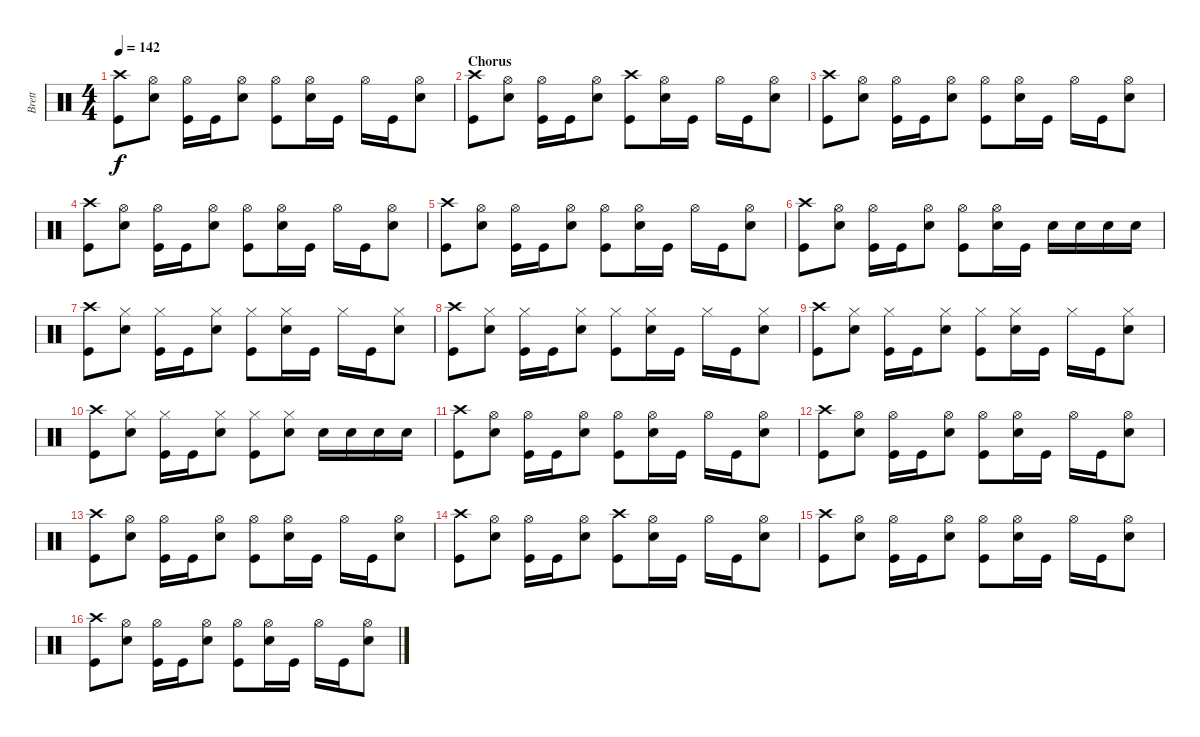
\track ("Brett" "Brett") {instrument percussion}
\staff {score}
\articulation defaults
\ts (4 4)
\tempo 142
\clef neutral
\ks c
("Crash high (hit)" "Kick (hit)").8{dy f} ("Hi-Hat (open)" "Electric Snare (hit)").8 ("Hi-Hat (open)" "Kick (hit)").16 "Kick (hit)".16 ("Hi-Hat (open)" "Electric Snare (hit)").8 ("Hi-Hat (open)" "Kick (hit)").8 ("Hi-Hat (open)" "Electric Snare (hit)").16 "Kick (hit)".16 "Hi-Hat (open)".16 "Kick (hit)".16 ("Hi-Hat (open)" "Electric Snare (hit)").8 |
\section ("" "Chorus")
("Crash high (hit)" "Kick (hit)").8 ("Hi-Hat (open)" "Electric Snare (hit)").8 ("Hi-Hat (open)" "Kick (hit)").16 "Kick (hit)".16 ("Hi-Hat (open)" "Electric Snare (hit)").8 ("Crash high (hit)" "Kick (hit)").8 ("Hi-Hat (open)" "Electric Snare (hit)").16 "Kick (hit)".16 "Hi-Hat (open)".16 "Kick (hit)".16 ("Hi-Hat (open)" "Electric Snare (hit)").8 |
("Crash high (hit)" "Kick (hit)").8 ("Hi-Hat (open)" "Electric Snare (hit)").8 ("Hi-Hat (open)" "Kick (hit)").16 "Kick (hit)".16 ("Hi-Hat (open)" "Electric Snare (hit)").8 ("Hi-Hat (open)" "Kick (hit)").8 ("Hi-Hat (open)" "Electric Snare (hit)").16 "Kick (hit)".16 "Hi-Hat (open)".16 "Kick (hit)".16 ("Hi-Hat (open)" "Electric Snare (hit)").8 |
("Crash high (hit)" "Kick (hit)").8 ("Hi-Hat (open)" "Electric Snare (hit)").8 ("Hi-Hat (open)" "Kick (hit)").16 "Kick (hit)".16 ("Hi-Hat (open)" "Electric Snare (hit)").8 ("Hi-Hat (open)" "Kick (hit)").8 ("Hi-Hat (open)" "Electric Snare (hit)").16 "Kick (hit)".16 "Hi-Hat (open)".16 "Kick (hit)".16 ("Hi-Hat (open)" "Electric Snare (hit)").8 |
("Crash high (hit)" "Kick (hit)").8 ("Hi-Hat (open)" "Electric Snare (hit)").8 ("Hi-Hat (open)" "Kick (hit)").16 "Kick (hit)".16 ("Hi-Hat (open)" "Electric Snare (hit)").8 ("Hi-Hat (open)" "Kick (hit)").8 ("Hi-Hat (open)" "Electric Snare (hit)").16 "Kick (hit)".16 "Hi-Hat (open)".16 "Kick (hit)".16 ("Hi-Hat (open)" "Electric Snare (hit)").8 |
("Crash high (hit)" "Kick (hit)").8 ("Hi-Hat (open)" "Electric Snare (hit)").8 ("Hi-Hat (open)" "Kick (hit)").16 "Kick (hit)".16 ("Hi-Hat (open)" "Electric Snare (hit)").8 ("Hi-Hat (open)" "Kick (hit)").8 ("Hi-Hat (open)" "Electric Snare (hit)").16 "Kick (hit)".16 "Electric Snare (hit)".16 "Electric Snare (hit)".16 "Electric Snare (hit)".16 "Electric Snare (hit)".16 |
("Crash high (hit)" "Kick (hit)").8 ("Hi-Hat (closed)" "Electric Snare (hit)").8 ("Hi-Hat (closed)" "Kick (hit)").16 "Kick (hit)".16 ("Hi-Hat (closed)" "Electric Snare (hit)").8 ("Hi-Hat (closed)" "Kick (hit)").8 ("Hi-Hat (closed)" "Electric Snare (hit)").16 "Kick (hit)".16 "Hi-Hat (closed)".16 "Kick (hit)".16 ("Hi-Hat (closed)" "Electric Snare (hit)").8 |
("Crash high (hit)" "Kick (hit)").8 ("Hi-Hat (closed)" "Electric Snare (hit)").8 ("Hi-Hat (closed)" "Kick (hit)").16 "Kick (hit)".16 ("Hi-Hat (closed)" "Electric Snare (hit)").8 ("Hi-Hat (closed)" "Kick (hit)").8 ("Hi-Hat (closed)" "Electric Snare (hit)").16 "Kick (hit)".16 "Hi-Hat (closed)".16 "Kick (hit)".16 ("Hi-Hat (closed)" "Electric Snare (hit)").8 |
("Crash high (hit)" "Kick (hit)").8 ("Hi-Hat (closed)" "Electric Snare (hit)").8 ("Hi-Hat (closed)" "Kick (hit)").16 "Kick (hit)".16 ("Hi-Hat (closed)" "Electric Snare (hit)").8 ("Hi-Hat (closed)" "Kick (hit)").8 ("Hi-Hat (closed)" "Electric Snare (hit)").16 "Kick (hit)".16 "Hi-Hat (closed)".16 "Kick (hit)".16 ("Hi-Hat (closed)" "Electric Snare (hit)").8 |
("Crash high (hit)" "Kick (hit)").8 ("Hi-Hat (closed)" "Electric Snare (hit)").8 ("Hi-Hat (closed)" "Kick (hit)").16 "Kick (hit)".16 ("Hi-Hat (closed)" "Electric Snare (hit)").8 ("Hi-Hat (closed)" "Kick (hit)").8 ("Hi-Hat (closed)" "Electric Snare (hit)").8 "Electric Snare (hit)".16 "Electric Snare (hit)".16 "Electric Snare (hit)".16 "Electric Snare (hit)".16 |
("Crash high (hit)" "Kick (hit)").8 ("Hi-Hat (open)" "Electric Snare (hit)").8 ("Hi-Hat (open)" "Kick (hit)").16 "Kick (hit)".16 ("Hi-Hat (open)" "Electric Snare (hit)").8 ("Hi-Hat (open)" "Kick (hit)").8 ("Hi-Hat (open)" "Electric Snare (hit)").16 "Kick (hit)".16 "Hi-Hat (open)".16 "Kick (hit)".16 ("Hi-Hat (open)" "Electric Snare (hit)").8 |
("Crash high (hit)" "Kick (hit)").8 ("Hi-Hat (open)" "Electric Snare (hit)").8 ("Hi-Hat (open)" "Kick (hit)").16 "Kick (hit)".16 ("Hi-Hat (open)" "Electric Snare (hit)").8 ("Hi-Hat (open)" "Kick (hit)").8 ("Hi-Hat (open)" "Electric Snare (hit)").16 "Kick (hit)".16 "Hi-Hat (open)".16 "Kick (hit)".16 ("Hi-Hat (open)" "Electric Snare (hit)").8 |
("Crash high (hit)" "Kick (hit)").8 ("Hi-Hat (open)" "Electric Snare (hit)").8 ("Hi-Hat (open)" "Kick (hit)").16 "Kick (hit)".16 ("Hi-Hat (open)" "Electric Snare (hit)").8 ("Hi-Hat (open)" "Kick (hit)").8 ("Hi-Hat (open)" "Electric Snare (hit)").16 "Kick (hit)".16 "Hi-Hat (open)".16 "Kick (hit)".16 ("Hi-Hat (open)" "Electric Snare (hit)").8 |
("Crash high (hit)" "Kick (hit)").8 ("Hi-Hat (open)" "Electric Snare (hit)").8 ("Hi-Hat (open)" "Kick (hit)").16 "Kick (hit)".16 ("Hi-Hat (open)" "Electric Snare (hit)").8 ("Crash high (hit)" "Kick (hit)").8 ("Hi-Hat (open)" "Electric Snare (hit)").16 "Kick (hit)".16 "Hi-Hat (open)".16 "Kick (hit)".16 ("Hi-Hat (open)" "Electric Snare (hit)").8 |
("Crash high (hit)" "Kick (hit)").8 ("Hi-Hat (open)" "Electric Snare (hit)").8 ("Hi-Hat (open)" "Kick (hit)").16 "Kick (hit)".16 ("Hi-Hat (open)" "Electric Snare (hit)").8 ("Hi-Hat (open)" "Kick (hit)").8 ("Hi-Hat (open)" "Electric Snare (hit)").16 "Kick (hit)".16 "Hi-Hat (open)".16 "Kick (hit)".16 ("Hi-Hat (open)" "Electric Snare (hit)").8 |
("Crash high (hit)" "Kick (hit)").8 ("Hi-Hat (open)" "Electric Snare (hit)").8 ("Hi-Hat (open)" "Kick (hit)").16 "Kick (hit)".16 ("Hi-Hat (open)" "Electric Snare (hit)").8 ("Hi-Hat (open)" "Kick (hit)").8 ("Hi-Hat (open)" "Electric Snare (hit)").16 "Kick (hit)".16 "Hi-Hat (open)".16 "Kick (hit)".16 ("Hi-Hat (open)" "Electric Snare (hit)").8
